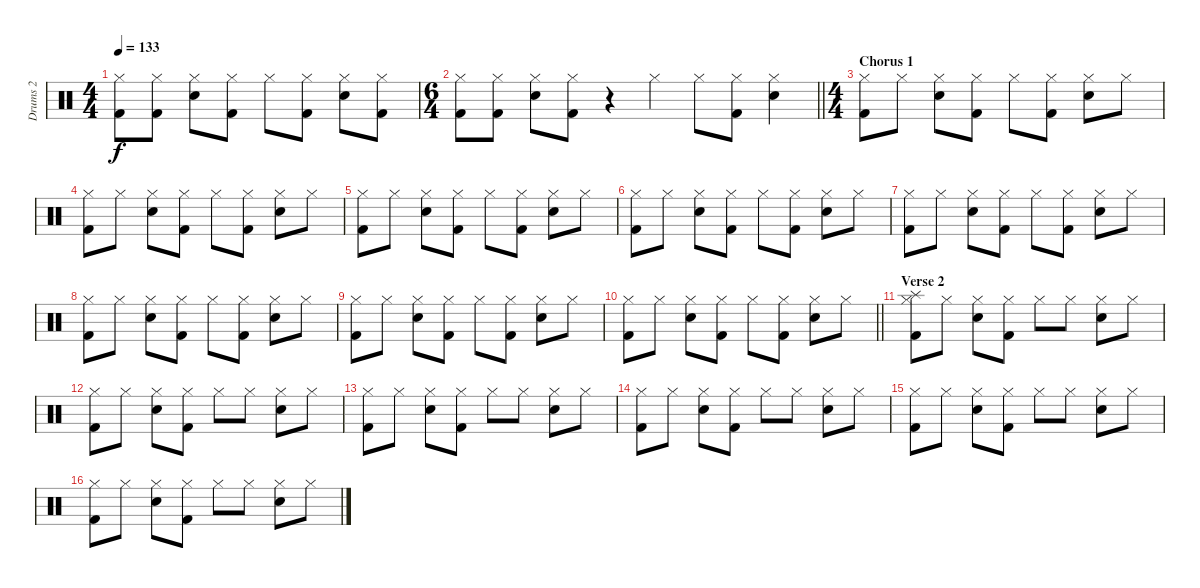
\track ("Drums 2" "Drums 2") {instrument percussion}
\staff {score}
\articulation defaults
\ts (4 4)
\tempo 133
\clef neutral
\ks c
("Hi-Hat (closed)" "Kick (hit) 2").8{dy f} ("Hi-Hat (closed)" "Kick (hit) 2").8 ("Snare (hit) 2" "Hi-Hat (closed)").8 ("Hi-Hat (closed)" "Kick (hit) 2").8 "Hi-Hat (closed)".8 ("Hi-Hat (closed)" "Kick (hit) 2").8 ("Snare (hit) 2" "Hi-Hat (closed)").8 ("Hi-Hat (closed)" "Kick (hit) 2").8 |
\ts (6 4)
\barLineRight lightlight
("Hi-Hat (closed)" "Kick (hit) 2").8 ("Hi-Hat (closed)" "Kick (hit) 2").8 ("Snare (hit) 2" "Hi-Hat (closed)").8 ("Hi-Hat (closed)" "Kick (hit) 2").8 r.4 "Hi-Hat (closed)".4 "Hi-Hat (closed)".8 ("Hi-Hat (closed)" "Kick (hit) 2").8 ("Snare (hit) 2" "Hi-Hat (closed)").4 |
\ts (4 4)
\section ("" "Chorus 1")
("Hi-Hat (closed)" "Kick (hit) 2").8 "Hi-Hat (closed)".8 ("Snare (hit) 2" "Hi-Hat (closed)").8 ("Hi-Hat (closed)" "Kick (hit) 2").8 "Hi-Hat (closed)".8 ("Hi-Hat (closed)" "Kick (hit) 2").8 ("Snare (hit) 2" "Hi-Hat (closed)").8 "Hi-Hat (closed)".8 |
("Hi-Hat (closed)" "Kick (hit) 2").8 "Hi-Hat (closed)".8 ("Snare (hit) 2" "Hi-Hat (closed)").8 ("Hi-Hat (closed)" "Kick (hit) 2").8 "Hi-Hat (closed)".8 ("Hi-Hat (closed)" "Kick (hit) 2").8 ("Snare (hit) 2" "Hi-Hat (closed)").8 "Hi-Hat (closed)".8 |
("Hi-Hat (closed)" "Kick (hit) 2").8 "Hi-Hat (closed)".8 ("Snare (hit) 2" "Hi-Hat (closed)").8 ("Hi-Hat (closed)" "Kick (hit) 2").8 "Hi-Hat (closed)".8 ("Hi-Hat (closed)" "Kick (hit) 2").8 ("Snare (hit) 2" "Hi-Hat (closed)").8 "Hi-Hat (closed)".8 |
("Hi-Hat (closed)" "Kick (hit) 2").8 "Hi-Hat (closed)".8 ("Snare (hit) 2" "Hi-Hat (closed)").8 ("Hi-Hat (closed)" "Kick (hit) 2").8 "Hi-Hat (closed)".8 ("Hi-Hat (closed)" "Kick (hit) 2").8 ("Snare (hit) 2" "Hi-Hat (closed)").8 "Hi-Hat (closed)".8 |
("Hi-Hat (closed)" "Kick (hit) 2").8 "Hi-Hat (closed)".8 ("Snare (hit) 2" "Hi-Hat (closed)").8 ("Hi-Hat (closed)" "Kick (hit) 2").8 "Hi-Hat (closed)".8 ("Hi-Hat (closed)" "Kick (hit) 2").8 ("Snare (hit) 2" "Hi-Hat (closed)").8 "Hi-Hat (closed)".8 |
("Hi-Hat (closed)" "Kick (hit) 2").8 "Hi-Hat (closed)".8 ("Snare (hit) 2" "Hi-Hat (closed)").8 ("Hi-Hat (closed)" "Kick (hit) 2").8 "Hi-Hat (closed)".8 ("Hi-Hat (closed)" "Kick (hit) 2").8 ("Snare (hit) 2" "Hi-Hat (closed)").8 "Hi-Hat (closed)".8 |
("Hi-Hat (closed)" "Kick (hit) 2").8 "Hi-Hat (closed)".8 ("Snare (hit) 2" "Hi-Hat (closed)").8 ("Hi-Hat (closed)" "Kick (hit) 2").8 "Hi-Hat (closed)".8 ("Hi-Hat (closed)" "Kick (hit) 2").8 ("Snare (hit) 2" "Hi-Hat (closed)").8 "Hi-Hat (closed)".8 |
\barLineRight lightlight
("Hi-Hat (closed)" "Kick (hit) 2").8 "Hi-Hat (closed)".8 ("Snare (hit) 2" "Hi-Hat (closed)").8 ("Hi-Hat (closed)" "Kick (hit) 2").8 "Hi-Hat (closed)".8 ("Hi-Hat (closed)" "Kick (hit) 2").8 ("Snare (hit) 2" "Hi-Hat (closed)").8 "Hi-Hat (closed)".8 |
\section ("" "Verse 2")
("Splash (hit)" "Hi-Hat (closed)" "Kick (hit) 2").8 "Hi-Hat (closed)".8 ("Snare (hit) 2" "Hi-Hat (closed)").8 ("Hi-Hat (closed)" "Kick (hit) 2").8 "Hi-Hat (closed)".8 "Hi-Hat (closed)".8 ("Snare (hit) 2" "Hi-Hat (closed)").8 "Hi-Hat (closed)".8 |
("Hi-Hat (closed)" "Kick (hit) 2").8 "Hi-Hat (closed)".8 ("Snare (hit) 2" "Hi-Hat (closed)").8 ("Hi-Hat (closed)" "Kick (hit) 2").8 "Hi-Hat (closed)".8 "Hi-Hat (closed)".8 ("Snare (hit) 2" "Hi-Hat (closed)").8 "Hi-Hat (closed)".8 |
("Hi-Hat (closed)" "Kick (hit) 2").8 "Hi-Hat (closed)".8 ("Snare (hit) 2" "Hi-Hat (closed)").8 ("Hi-Hat (closed)" "Kick (hit) 2").8 "Hi-Hat (closed)".8 "Hi-Hat (closed)".8 ("Snare (hit) 2" "Hi-Hat (closed)").8 "Hi-Hat (closed)".8 |
("Hi-Hat (closed)" "Kick (hit) 2").8 "Hi-Hat (closed)".8 ("Snare (hit) 2" "Hi-Hat (closed)").8 ("Hi-Hat (closed)" "Kick (hit) 2").8 "Hi-Hat (closed)".8 "Hi-Hat (closed)".8 ("Snare (hit) 2" "Hi-Hat (closed)").8 "Hi-Hat (closed)".8 |
("Hi-Hat (closed)" "Kick (hit) 2").8 "Hi-Hat (closed)".8 ("Snare (hit) 2" "Hi-Hat (closed)").8 ("Hi-Hat (closed)" "Kick (hit) 2").8 "Hi-Hat (closed)".8 "Hi-Hat (closed)".8 ("Snare (hit) 2" "Hi-Hat (closed)").8 "Hi-Hat (closed)".8 |
("Hi-Hat (closed)" "Kick (hit) 2").8 "Hi-Hat (closed)".8 ("Snare (hit) 2" "Hi-Hat (closed)").8 ("Hi-Hat (closed)" "Kick (hit) 2").8 "Hi-Hat (closed)".8 "Hi-Hat (closed)".8 ("Snare (hit) 2" "Hi-Hat (closed)").8 "Hi-Hat (closed)".8
